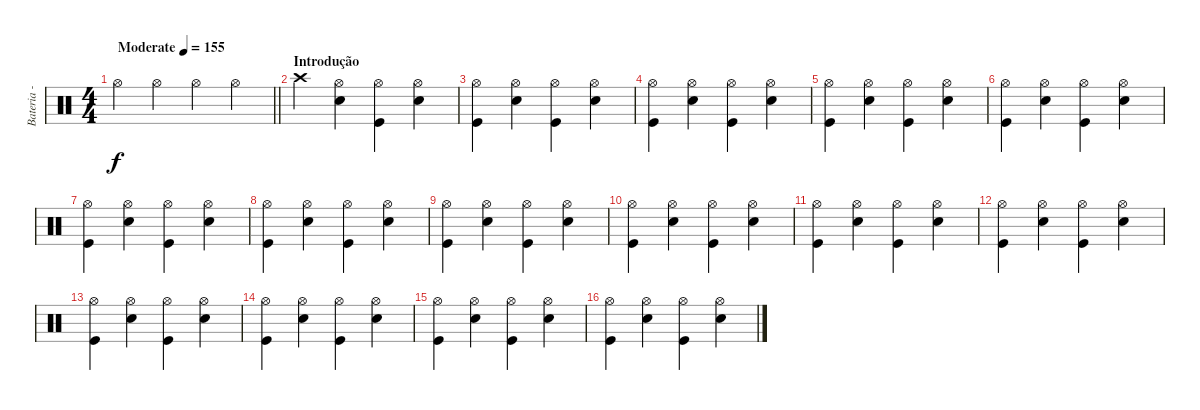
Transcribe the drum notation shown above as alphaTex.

\track ("Bateria - Craig Nunumacher" "Bateria - ") {instrument percussion}
\staff {score}
\articulation defaults
\ts (4 4)
\tempo (155 "Moderate")
\clef neutral
\barLineRight lightlight
\ks c "Hi-Hat (open)".4{dy f} "Hi-Hat (open)".4 "Hi-Hat (open)".4 "Hi-Hat (open)".4
|
\section ("" "Introdução")
"Crash high (hit)".4 ("Hi-Hat (open)" "Electric Snare (hit)").4 ("Hi-Hat (open)" "Kick (hit)").4 ("Hi-Hat (open)" "Electric Snare (hit)").4 |
("Hi-Hat (open)" "Kick (hit)").4 ("Hi-Hat (open)" "Electric Snare (hit)").4 ("Hi-Hat (open)" "Kick (hit)").4 ("Hi-Hat (open)" "Electric Snare (hit)").4 |
("Hi-Hat (open)" "Kick (hit)").4 ("Hi-Hat (open)" "Electric Snare (hit)").4 ("Hi-Hat (open)" "Kick (hit)").4 ("Hi-Hat (open)" "Electric Snare (hit)").4 |
("Hi-Hat (open)" "Kick (hit)").4 ("Hi-Hat (open)" "Electric Snare (hit)").4 ("Hi-Hat (open)" "Kick (hit)").4 ("Hi-Hat (open)" "Electric Snare (hit)").4 |
("Hi-Hat (open)" "Kick (hit)").4 ("Hi-Hat (open)" "Electric Snare (hit)").4 ("Hi-Hat (open)" "Kick (hit)").4 ("Hi-Hat (open)" "Electric Snare (hit)").4 |
("Hi-Hat (open)" "Kick (hit)").4 ("Hi-Hat (open)" "Electric Snare (hit)").4 ("Hi-Hat (open)" "Kick (hit)").4 ("Hi-Hat (open)" "Electric Snare (hit)").4 |
("Hi-Hat (open)" "Kick (hit)").4 ("Hi-Hat (open)" "Electric Snare (hit)").4 ("Hi-Hat (open)" "Kick (hit)").4 ("Hi-Hat (open)" "Electric Snare (hit)").4 |
("Hi-Hat (open)" "Kick (hit)").4 ("Hi-Hat (open)" "Electric Snare (hit)").4 ("Hi-Hat (open)" "Kick (hit)").4 ("Hi-Hat (open)" "Electric Snare (hit)").4 |
("Hi-Hat (open)" "Kick (hit)").4 ("Hi-Hat (open)" "Electric Snare (hit)").4 ("Hi-Hat (open)" "Kick (hit)").4 ("Hi-Hat (open)" "Electric Snare (hit)").4 |
("Hi-Hat (open)" "Kick (hit)").4 ("Hi-Hat (open)" "Electric Snare (hit)").4 ("Hi-Hat (open)" "Kick (hit)").4 ("Hi-Hat (open)" "Electric Snare (hit)").4 |
("Hi-Hat (open)" "Kick (hit)").4 ("Hi-Hat (open)" "Electric Snare (hit)").4 ("Hi-Hat (open)" "Kick (hit)").4 ("Hi-Hat (open)" "Electric Snare (hit)").4 |
("Hi-Hat (open)" "Kick (hit)").4 ("Hi-Hat (open)" "Electric Snare (hit)").4 ("Hi-Hat (open)" "Kick (hit)").4 ("Hi-Hat (open)" "Electric Snare (hit)").4 |
("Hi-Hat (open)" "Kick (hit)").4 ("Hi-Hat (open)" "Electric Snare (hit)").4 ("Hi-Hat (open)" "Kick (hit)").4 ("Hi-Hat (open)" "Electric Snare (hit)").4 |
("Hi-Hat (open)" "Kick (hit)").4 ("Hi-Hat (open)" "Electric Snare (hit)").4 ("Hi-Hat (open)" "Kick (hit)").4 ("Hi-Hat (open)" "Electric Snare (hit)").4 |
("Hi-Hat (open)" "Kick (hit)").4 ("Hi-Hat (open)" "Electric Snare (hit)").4 ("Hi-Hat (open)" "Kick (hit)").4 ("Hi-Hat (open)" "Electric Snare (hit)").4
